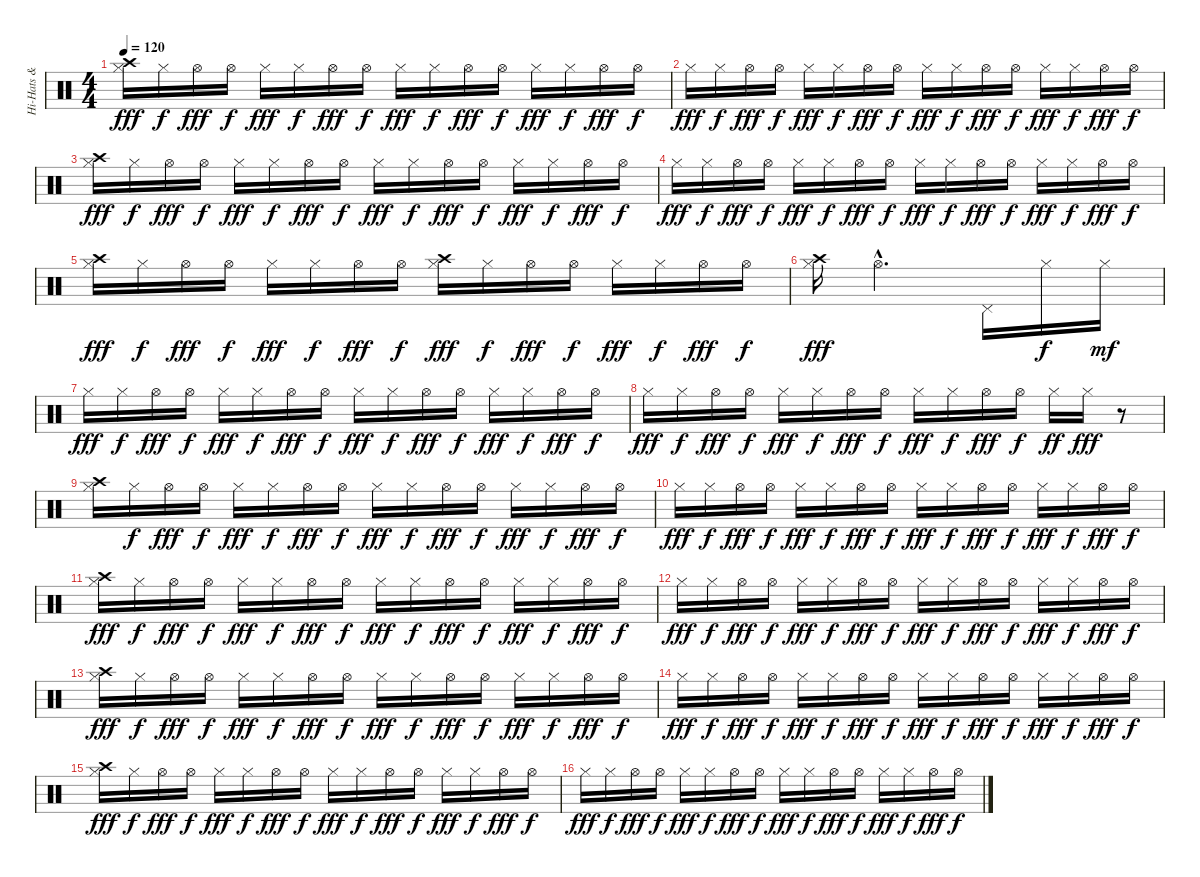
\track ("Hi-Hats & Cymbal" "Hi-Hats & ") {instrument percussion}
\staff {score}
\articulation defaults
\ts (4 4)
\tempo 120
\clef neutral
\ks c
("Hi-Hat (closed)" "Crash high (hit)").16{dy fff} "Hi-Hat (closed)".16{dy f} "Hi-Hat (open)".16{dy fff} "Hi-Hat (open)".16{dy f} "Hi-Hat (closed)".16{dy fff} "Hi-Hat (closed)".16{dy f} "Hi-Hat (open)".16{dy fff} "Hi-Hat (open)".16{dy f} "Hi-Hat (closed)".16{dy fff} "Hi-Hat (closed)".16{dy f} "Hi-Hat (open)".16{dy fff} "Hi-Hat (open)".16{dy f} "Hi-Hat (closed)".16{dy fff} "Hi-Hat (closed)".16{dy f} "Hi-Hat (open)".16{dy fff} "Hi-Hat (open)".16{dy f} |
"Hi-Hat (closed)".16{dy fff} "Hi-Hat (closed)".16{dy f} "Hi-Hat (open)".16{dy fff} "Hi-Hat (open)".16{dy f} "Hi-Hat (closed)".16{dy fff} "Hi-Hat (closed)".16{dy f} "Hi-Hat (open)".16{dy fff} "Hi-Hat (open)".16{dy f} "Hi-Hat (closed)".16{dy fff} "Hi-Hat (closed)".16{dy f} "Hi-Hat (open)".16{dy fff} "Hi-Hat (open)".16{dy f} "Hi-Hat (closed)".16{dy fff} "Hi-Hat (closed)".16{dy f} "Hi-Hat (open)".16{dy fff} "Hi-Hat (open)".16{dy f} |
("Hi-Hat (closed)" "Crash high (hit)").16{dy fff} "Hi-Hat (closed)".16{dy f} "Hi-Hat (open)".16{dy fff} "Hi-Hat (open)".16{dy f} "Hi-Hat (closed)".16{dy fff} "Hi-Hat (closed)".16{dy f} "Hi-Hat (open)".16{dy fff} "Hi-Hat (open)".16{dy f} "Hi-Hat (closed)".16{dy fff} "Hi-Hat (closed)".16{dy f} "Hi-Hat (open)".16{dy fff} "Hi-Hat (open)".16{dy f} "Hi-Hat (closed)".16{dy fff} "Hi-Hat (closed)".16{dy f} "Hi-Hat (open)".16{dy fff} "Hi-Hat (open)".16{dy f} |
"Hi-Hat (closed)".16{dy fff} "Hi-Hat (closed)".16{dy f} "Hi-Hat (open)".16{dy fff} "Hi-Hat (open)".16{dy f} "Hi-Hat (closed)".16{dy fff} "Hi-Hat (closed)".16{dy f} "Hi-Hat (open)".16{dy fff} "Hi-Hat (open)".16{dy f} "Hi-Hat (closed)".16{dy fff} "Hi-Hat (closed)".16{dy f} "Hi-Hat (open)".16{dy fff} "Hi-Hat (open)".16{dy f} "Hi-Hat (closed)".16{dy fff} "Hi-Hat (closed)".16{dy f} "Hi-Hat (open)".16{dy fff} "Hi-Hat (open)".16{dy f} |
("Hi-Hat (closed)" "Crash high (hit)").16{dy fff} "Hi-Hat (closed)".16{dy f} "Hi-Hat (open)".16{dy fff} "Hi-Hat (open)".16{dy f} "Hi-Hat (closed)".16{dy fff} "Hi-Hat (closed)".16{dy f} "Hi-Hat (open)".16{dy fff} "Hi-Hat (open)".16{dy f} ("Hi-Hat (closed)" "Crash high (hit)").16{dy fff} "Hi-Hat (closed)".16{dy f} "Hi-Hat (open)".16{dy fff} "Hi-Hat (open)".16{dy f} "Hi-Hat (closed)".16{dy fff} "Hi-Hat (closed)".16{dy f} "Hi-Hat (open)".16{dy fff} "Hi-Hat (open)".16{dy f} |
("Hi-Hat (closed)" "Crash high (hit)").16{dy fff} "Hi-Hat (open)"{hac}.2{d} "Pedal Hi-Hat (hit)".16 "Hi-Hat (closed)".16{dy f} "Hi-Hat (closed)".16{dy mf} |
"Hi-Hat (closed)".16{dy fff} "Hi-Hat (closed)".16{dy f} "Hi-Hat (open)".16{dy fff} "Hi-Hat (open)".16{dy f} "Hi-Hat (closed)".16{dy fff} "Hi-Hat (closed)".16{dy f} "Hi-Hat (open)".16{dy fff} "Hi-Hat (open)".16{dy f} "Hi-Hat (closed)".16{dy fff} "Hi-Hat (closed)".16{dy f} "Hi-Hat (open)".16{dy fff} "Hi-Hat (open)".16{dy f} "Hi-Hat (closed)".16{dy fff} "Hi-Hat (closed)".16{dy f} "Hi-Hat (open)".16{dy fff} "Hi-Hat (open)".16{dy f} |
"Hi-Hat (closed)".16{dy fff} "Hi-Hat (closed)".16{dy f} "Hi-Hat (open)".16{dy fff} "Hi-Hat (open)".16{dy f} "Hi-Hat (closed)".16{dy fff} "Hi-Hat (closed)".16{dy f} "Hi-Hat (open)".16{dy fff} "Hi-Hat (open)".16{dy f} "Hi-Hat (closed)".16{dy fff} "Hi-Hat (closed)".16{dy f} "Hi-Hat (open)".16{dy fff} "Hi-Hat (open)".16{dy f} "Hi-Hat (closed)".16{dy ff} "Hi-Hat (closed)".16{dy fff} r.8 |
("Hi-Hat (closed)" "Crash high (hit)").16 "Hi-Hat (closed)".16{dy f} "Hi-Hat (open)".16{dy fff} "Hi-Hat (open)".16{dy f} "Hi-Hat (closed)".16{dy fff} "Hi-Hat (closed)".16{dy f} "Hi-Hat (open)".16{dy fff} "Hi-Hat (open)".16{dy f} "Hi-Hat (closed)".16{dy fff} "Hi-Hat (closed)".16{dy f} "Hi-Hat (open)".16{dy fff} "Hi-Hat (open)".16{dy f} "Hi-Hat (closed)".16{dy fff} "Hi-Hat (closed)".16{dy f} "Hi-Hat (open)".16{dy fff} "Hi-Hat (open)".16{dy f} |
"Hi-Hat (closed)".16{dy fff} "Hi-Hat (closed)".16{dy f} "Hi-Hat (open)".16{dy fff} "Hi-Hat (open)".16{dy f} "Hi-Hat (closed)".16{dy fff} "Hi-Hat (closed)".16{dy f} "Hi-Hat (open)".16{dy fff} "Hi-Hat (open)".16{dy f} "Hi-Hat (closed)".16{dy fff} "Hi-Hat (closed)".16{dy f} "Hi-Hat (open)".16{dy fff} "Hi-Hat (open)".16{dy f} "Hi-Hat (closed)".16{dy fff} "Hi-Hat (closed)".16{dy f} "Hi-Hat (open)".16{dy fff} "Hi-Hat (open)".16{dy f} |
("Hi-Hat (closed)" "Crash high (hit)").16{dy fff} "Hi-Hat (closed)".16{dy f} "Hi-Hat (open)".16{dy fff} "Hi-Hat (open)".16{dy f} "Hi-Hat (closed)".16{dy fff} "Hi-Hat (closed)".16{dy f} "Hi-Hat (open)".16{dy fff} "Hi-Hat (open)".16{dy f} "Hi-Hat (closed)".16{dy fff} "Hi-Hat (closed)".16{dy f} "Hi-Hat (open)".16{dy fff} "Hi-Hat (open)".16{dy f} "Hi-Hat (closed)".16{dy fff} "Hi-Hat (closed)".16{dy f} "Hi-Hat (open)".16{dy fff} "Hi-Hat (open)".16{dy f} |
"Hi-Hat (closed)".16{dy fff} "Hi-Hat (closed)".16{dy f} "Hi-Hat (open)".16{dy fff} "Hi-Hat (open)".16{dy f} "Hi-Hat (closed)".16{dy fff} "Hi-Hat (closed)".16{dy f} "Hi-Hat (open)".16{dy fff} "Hi-Hat (open)".16{dy f} "Hi-Hat (closed)".16{dy fff} "Hi-Hat (closed)".16{dy f} "Hi-Hat (open)".16{dy fff} "Hi-Hat (open)".16{dy f} "Hi-Hat (closed)".16{dy fff} "Hi-Hat (closed)".16{dy f} "Hi-Hat (open)".16{dy fff} "Hi-Hat (open)".16{dy f} |
("Hi-Hat (closed)" "Crash high (hit)").16{dy fff} "Hi-Hat (closed)".16{dy f} "Hi-Hat (open)".16{dy fff} "Hi-Hat (open)".16{dy f} "Hi-Hat (closed)".16{dy fff} "Hi-Hat (closed)".16{dy f} "Hi-Hat (open)".16{dy fff} "Hi-Hat (open)".16{dy f} "Hi-Hat (closed)".16{dy fff} "Hi-Hat (closed)".16{dy f} "Hi-Hat (open)".16{dy fff} "Hi-Hat (open)".16{dy f} "Hi-Hat (closed)".16{dy fff} "Hi-Hat (closed)".16{dy f} "Hi-Hat (open)".16{dy fff} "Hi-Hat (open)".16{dy f} |
"Hi-Hat (closed)".16{dy fff} "Hi-Hat (closed)".16{dy f} "Hi-Hat (open)".16{dy fff} "Hi-Hat (open)".16{dy f} "Hi-Hat (closed)".16{dy fff} "Hi-Hat (closed)".16{dy f} "Hi-Hat (open)".16{dy fff} "Hi-Hat (open)".16{dy f} "Hi-Hat (closed)".16{dy fff} "Hi-Hat (closed)".16{dy f} "Hi-Hat (open)".16{dy fff} "Hi-Hat (open)".16{dy f} "Hi-Hat (closed)".16{dy fff} "Hi-Hat (closed)".16{dy f} "Hi-Hat (open)".16{dy fff} "Hi-Hat (open)".16{dy f} |
("Hi-Hat (closed)" "Crash high (hit)").16{dy fff} "Hi-Hat (closed)".16{dy f} "Hi-Hat (open)".16{dy fff} "Hi-Hat (open)".16{dy f} "Hi-Hat (closed)".16{dy fff} "Hi-Hat (closed)".16{dy f} "Hi-Hat (open)".16{dy fff} "Hi-Hat (open)".16{dy f} "Hi-Hat (closed)".16{dy fff} "Hi-Hat (closed)".16{dy f} "Hi-Hat (open)".16{dy fff} "Hi-Hat (open)".16{dy f} "Hi-Hat (closed)".16{dy fff} "Hi-Hat (closed)".16{dy f} "Hi-Hat (open)".16{dy fff} "Hi-Hat (open)".16{dy f} |
"Hi-Hat (closed)".16{dy fff} "Hi-Hat (closed)".16{dy f} "Hi-Hat (open)".16{dy fff} "Hi-Hat (open)".16{dy f} "Hi-Hat (closed)".16{dy fff} "Hi-Hat (closed)".16{dy f} "Hi-Hat (open)".16{dy fff} "Hi-Hat (open)".16{dy f} "Hi-Hat (closed)".16{dy fff} "Hi-Hat (closed)".16{dy f} "Hi-Hat (open)".16{dy fff} "Hi-Hat (open)".16{dy f} "Hi-Hat (closed)".16{dy fff} "Hi-Hat (closed)".16{dy f} "Hi-Hat (open)".16{dy fff} "Hi-Hat (open)".16{dy f}
